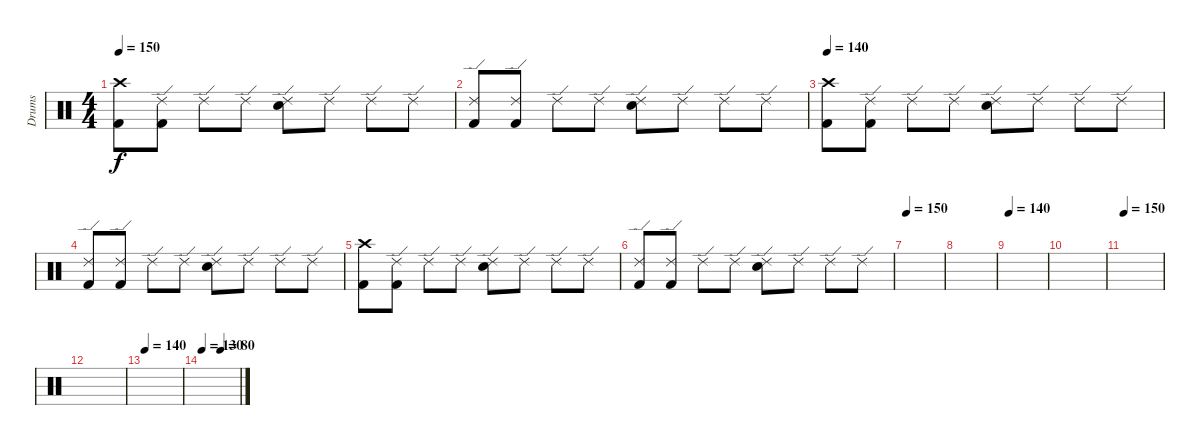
\track ("Drums" "Drums") {instrument percussion}
\staff {score}
\articulation defaults
\ts (4 4)
\tempo 150
\clef neutral
\ks c
("Crash high (hit)" "Kick (hit) 2").8{dy f} ("Ride (edge) 2" "Kick (hit) 2").8 "Ride (edge) 2".8 "Ride (edge) 2".8 ("Ride (edge) 2" "Snare (hit) 2").8 "Ride (edge) 2".8 "Ride (edge) 2".8 "Ride (edge) 2".8 |
("Ride (edge) 2" "Kick (hit) 2").8 ("Ride (edge) 2" "Kick (hit) 2").8 "Ride (edge) 2".8 "Ride (edge) 2".8 ("Ride (edge) 2" "Snare (hit) 2").8 "Ride (edge) 2".8 "Ride (edge) 2".8 "Ride (edge) 2".8 |
\tempo 140
("Crash high (hit)" "Kick (hit) 2").8{volume 0} ("Ride (edge) 2" "Kick (hit) 2").8 "Ride (edge) 2".8 "Ride (edge) 2".8 ("Ride (edge) 2" "Snare (hit) 2").8 "Ride (edge) 2".8 "Ride (edge) 2".8 "Ride (edge) 2".8 |
("Ride (edge) 2" "Kick (hit) 2").8 ("Ride (edge) 2" "Kick (hit) 2").8 "Ride (edge) 2".8 "Ride (edge) 2".8 ("Ride (edge) 2" "Snare (hit) 2").8 "Ride (edge) 2".8 "Ride (edge) 2".8 "Ride (edge) 2".8 |
("Crash high (hit)" "Kick (hit) 2").8 ("Ride (edge) 2" "Kick (hit) 2").8 "Ride (edge) 2".8 "Ride (edge) 2".8 ("Ride (edge) 2" "Snare (hit) 2").8 "Ride (edge) 2".8 "Ride (edge) 2".8 "Ride (edge) 2".8 |
("Ride (edge) 2" "Kick (hit) 2").8 ("Ride (edge) 2" "Kick (hit) 2").8 "Ride (edge) 2".8 "Ride (edge) 2".8 ("Ride (edge) 2" "Snare (hit) 2").8 "Ride (edge) 2".8 "Ride (edge) 2".8 "Ride (edge) 2".8 |
\tempo 150
|
|
\tempo 140
|
|
\tempo 150
|
|
\tempo 140
|
\tempo 130
\tempo (80 0.5)
